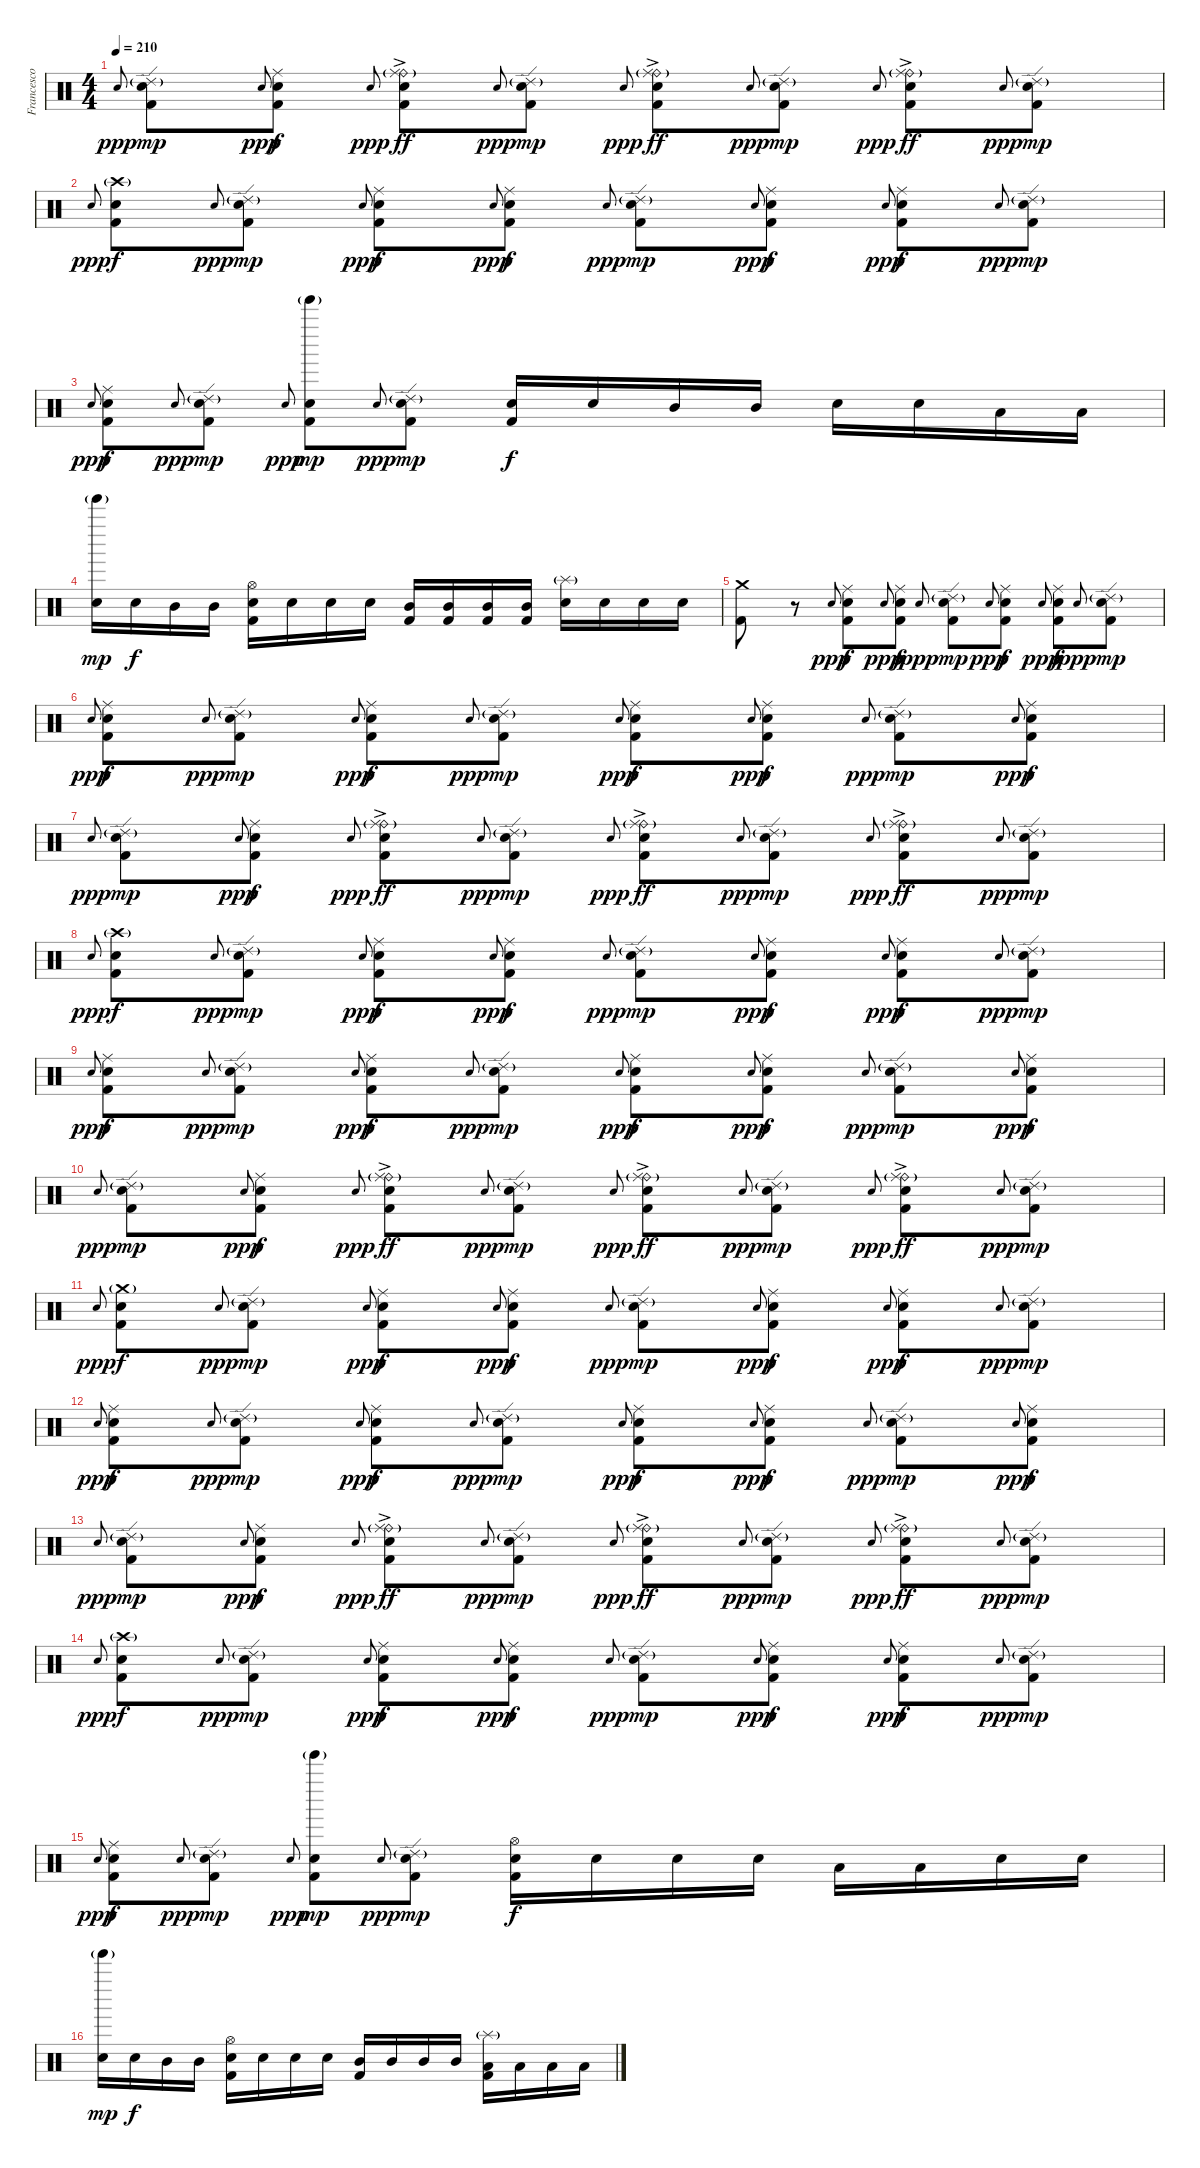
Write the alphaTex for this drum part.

\track ("Francesco Ferrini" "Francesco ") {instrument percussion}
\staff {score}
\articulation defaults
\ts (4 4)
\tempo 210
\clef neutral
\ks c "Electric Snare (hit)"{h}.8{gr onbeat dy ppp}
("Ride (edge) 2"{g} "Electric Snare (hit)" "Kick (hit) 2").8{dy mp} "Electric Snare (hit)"{h}.8{gr onbeat dy ppp} ("Ride (middle)" "Electric Snare (hit)" "Kick (hit) 2").8{dy f} "Electric Snare (hit)"{h}.8{gr onbeat dy ppp} ("Ride (bell)"{g} "Ride (middle)"{ac} "Electric Snare (hit)" "Kick (hit) 2").8{dy ff} "Electric Snare (hit)"{h}.8{gr onbeat dy ppp} ("Ride (edge) 2"{g} "Electric Snare (hit)" "Kick (hit) 2").8{dy mp} "Electric Snare (hit)"{h}.8{gr onbeat dy ppp} ("Ride (bell)"{g} "Ride (middle)"{ac} "Electric Snare (hit)" "Kick (hit) 2").8{dy ff} "Electric Snare (hit)"{h}.8{gr onbeat dy ppp} ("Ride (edge) 2"{g} "Electric Snare (hit)" "Kick (hit) 2").8{dy mp} "Electric Snare (hit)"{h}.8{gr onbeat dy ppp} ("Ride (bell)"{g} "Ride (middle)"{ac} "Electric Snare (hit)" "Kick (hit) 2").8{dy ff} "Electric Snare (hit)"{h}.8{gr onbeat dy ppp} ("Ride (edge) 2"{g} "Electric Snare (hit)" "Kick (hit) 2").8{dy mp} |
"Electric Snare (hit)"{h}.8{gr onbeat dy ppp} ("Crash high (hit)"{g} "Electric Snare (hit)" "Kick (hit) 2").8{dy f} "Electric Snare (hit)"{h}.8{gr onbeat dy ppp} ("Ride (edge) 2"{g} "Electric Snare (hit)" "Kick (hit) 2").8{dy mp} "Electric Snare (hit)"{h}.8{gr onbeat dy ppp} ("Ride (middle)" "Electric Snare (hit)" "Kick (hit) 2").8{dy f} "Electric Snare (hit)"{h}.8{gr onbeat dy ppp} ("Ride (middle)" "Electric Snare (hit)" "Kick (hit) 2").8{dy f} "Electric Snare (hit)"{h}.8{gr onbeat dy ppp} ("Ride (edge) 2"{g} "Electric Snare (hit)" "Kick (hit) 2").8{dy mp} "Electric Snare (hit)"{h}.8{gr onbeat dy ppp} ("Ride (middle)" "Electric Snare (hit)" "Kick (hit) 2").8{dy f} "Electric Snare (hit)"{h}.8{gr onbeat dy ppp} ("Ride (middle)" "Electric Snare (hit)" "Kick (hit) 2").8{dy f} "Electric Snare (hit)"{h}.8{gr onbeat dy ppp} ("Ride (edge) 2"{g} "Electric Snare (hit)" "Kick (hit) 2").8{dy mp} |
"Electric Snare (hit)"{h}.8{gr onbeat dy ppp} ("Ride (middle)" "Electric Snare (hit)" "Kick (hit) 2").8{dy f} "Electric Snare (hit)"{h}.8{gr onbeat dy ppp} ("Ride (edge) 2"{g} "Electric Snare (hit)" "Kick (hit) 2").8{dy mp} "Electric Snare (hit)"{h}.8{gr onbeat dy ppp} ("Tinkle Bell (hit)"{g} "Electric Snare (hit)" "Kick (hit) 2").8{dy mp} "Electric Snare (hit)"{h}.8{gr onbeat dy ppp} ("Ride (edge) 2"{g} "Electric Snare (hit)" "Kick (hit) 2").8{dy mp} ("Electric Snare (hit)" "Kick (hit) 2").16{dy f} "Electric Snare (hit)".16 "Mid Tom (hit)".16 "Mid Tom (hit)".16 "Electric Snare (hit)".16 "Electric Snare (hit)".16 "Low Tom (hit)".16 "Low Tom (hit)".16 |
("Tinkle Bell (hit)"{g} "Electric Snare (hit)").16{dy mp} "Electric Snare (hit)".16{dy f} "Mid Tom (hit)".16 "Mid Tom (hit)".16 ("Hi-Hat (open)" "Electric Snare (hit)" "Kick (hit) 2").16 "Electric Snare (hit)".16 "Electric Snare (hit)".16 "Electric Snare (hit)".16 ("Mid Tom (hit)" "Kick (hit) 2").16 ("Mid Tom (hit)" "Kick (hit) 2").16 ("Mid Tom (hit)" "Kick (hit) 2").16 ("Mid Tom (hit)" "Kick (hit) 2").16 ("Splash (hit)"{g} "Electric Snare (hit)").16 "Electric Snare (hit)".16 "Electric Snare (hit)".16 "Electric Snare (hit)".16 |
("Crash medium (hit)" "Kick (hit) 2").8 r.8 "Electric Snare (hit)"{h}.8{gr onbeat dy ppp} ("Ride (middle)" "Electric Snare (hit)" "Kick (hit) 2").8{dy f} "Electric Snare (hit)"{h}.8{gr onbeat dy ppp} ("Ride (middle)" "Electric Snare (hit)" "Kick (hit) 2").8{dy f} "Electric Snare (hit)"{h}.8{gr onbeat dy ppp} ("Ride (edge) 2"{g} "Electric Snare (hit)" "Kick (hit) 2").8{dy mp} "Electric Snare (hit)"{h}.8{gr onbeat dy ppp} ("Ride (middle)" "Electric Snare (hit)" "Kick (hit) 2").8{dy f} "Electric Snare (hit)"{h}.8{gr onbeat dy ppp} ("Ride (middle)" "Electric Snare (hit)" "Kick (hit) 2").8{dy f} "Electric Snare (hit)"{h}.8{gr onbeat dy ppp} ("Ride (edge) 2"{g} "Electric Snare (hit)" "Kick (hit) 2").8{dy mp} |
"Electric Snare (hit)"{h}.8{gr onbeat dy ppp} ("Ride (middle)" "Electric Snare (hit)" "Kick (hit) 2").8{dy f} "Electric Snare (hit)"{h}.8{gr onbeat dy ppp} ("Ride (edge) 2"{g} "Electric Snare (hit)" "Kick (hit) 2").8{dy mp} "Electric Snare (hit)"{h}.8{gr onbeat dy ppp} ("Ride (middle)" "Electric Snare (hit)" "Kick (hit) 2").8{dy f} "Electric Snare (hit)"{h}.8{gr onbeat dy ppp} ("Ride (edge) 2"{g} "Electric Snare (hit)" "Kick (hit) 2").8{dy mp} "Electric Snare (hit)"{h}.8{gr onbeat dy ppp} ("Ride (middle)" "Electric Snare (hit)" "Kick (hit) 2").8{dy f} "Electric Snare (hit)"{h}.8{gr onbeat dy ppp} ("Ride (middle)" "Electric Snare (hit)" "Kick (hit) 2").8{dy f} "Electric Snare (hit)"{h}.8{gr onbeat dy ppp} ("Ride (edge) 2"{g} "Electric Snare (hit)" "Kick (hit) 2").8{dy mp} "Electric Snare (hit)"{h}.8{gr onbeat dy ppp} ("Ride (middle)" "Electric Snare (hit)" "Kick (hit) 2").8{dy f} |
"Electric Snare (hit)"{h}.8{gr onbeat dy ppp} ("Ride (edge) 2"{g} "Electric Snare (hit)" "Kick (hit) 2").8{dy mp} "Electric Snare (hit)"{h}.8{gr onbeat dy ppp} ("Ride (middle)" "Electric Snare (hit)" "Kick (hit) 2").8{dy f} "Electric Snare (hit)"{h}.8{gr onbeat dy ppp} ("Ride (bell)"{g} "Ride (middle)"{ac} "Electric Snare (hit)" "Kick (hit) 2").8{dy ff} "Electric Snare (hit)"{h}.8{gr onbeat dy ppp} ("Ride (edge) 2"{g} "Electric Snare (hit)" "Kick (hit) 2").8{dy mp} "Electric Snare (hit)"{h}.8{gr onbeat dy ppp} ("Ride (bell)"{g} "Ride (middle)"{ac} "Electric Snare (hit)" "Kick (hit) 2").8{dy ff} "Electric Snare (hit)"{h}.8{gr onbeat dy ppp} ("Ride (edge) 2"{g} "Electric Snare (hit)" "Kick (hit) 2").8{dy mp} "Electric Snare (hit)"{h}.8{gr onbeat dy ppp} ("Ride (bell)"{g} "Ride (middle)"{ac} "Electric Snare (hit)" "Kick (hit) 2").8{dy ff} "Electric Snare (hit)"{h}.8{gr onbeat dy ppp} ("Ride (edge) 2"{g} "Electric Snare (hit)" "Kick (hit) 2").8{dy mp} |
"Electric Snare (hit)"{h}.8{gr onbeat dy ppp} ("Crash high (hit)"{g} "Electric Snare (hit)" "Kick (hit) 2").8{dy f} "Electric Snare (hit)"{h}.8{gr onbeat dy ppp} ("Ride (edge) 2"{g} "Electric Snare (hit)" "Kick (hit) 2").8{dy mp} "Electric Snare (hit)"{h}.8{gr onbeat dy ppp} ("Ride (middle)" "Electric Snare (hit)" "Kick (hit) 2").8{dy f} "Electric Snare (hit)"{h}.8{gr onbeat dy ppp} ("Ride (middle)" "Electric Snare (hit)" "Kick (hit) 2").8{dy f} "Electric Snare (hit)"{h}.8{gr onbeat dy ppp} ("Ride (edge) 2"{g} "Electric Snare (hit)" "Kick (hit) 2").8{dy mp} "Electric Snare (hit)"{h}.8{gr onbeat dy ppp} ("Ride (middle)" "Electric Snare (hit)" "Kick (hit) 2").8{dy f} "Electric Snare (hit)"{h}.8{gr onbeat dy ppp} ("Ride (middle)" "Electric Snare (hit)" "Kick (hit) 2").8{dy f} "Electric Snare (hit)"{h}.8{gr onbeat dy ppp} ("Ride (edge) 2"{g} "Electric Snare (hit)" "Kick (hit) 2").8{dy mp} |
"Electric Snare (hit)"{h}.8{gr onbeat dy ppp} ("Ride (middle)" "Electric Snare (hit)" "Kick (hit) 2").8{dy f} "Electric Snare (hit)"{h}.8{gr onbeat dy ppp} ("Ride (edge) 2"{g} "Electric Snare (hit)" "Kick (hit) 2").8{dy mp} "Electric Snare (hit)"{h}.8{gr onbeat dy ppp} ("Ride (middle)" "Electric Snare (hit)" "Kick (hit) 2").8{dy f} "Electric Snare (hit)"{h}.8{gr onbeat dy ppp} ("Ride (edge) 2"{g} "Electric Snare (hit)" "Kick (hit) 2").8{dy mp} "Electric Snare (hit)"{h}.8{gr onbeat dy ppp} ("Ride (middle)" "Electric Snare (hit)" "Kick (hit) 2").8{dy f} "Electric Snare (hit)"{h}.8{gr onbeat dy ppp} ("Ride (middle)" "Electric Snare (hit)" "Kick (hit) 2").8{dy f} "Electric Snare (hit)"{h}.8{gr onbeat dy ppp} ("Ride (edge) 2"{g} "Electric Snare (hit)" "Kick (hit) 2").8{dy mp} "Electric Snare (hit)"{h}.8{gr onbeat dy ppp} ("Ride (middle)" "Electric Snare (hit)" "Kick (hit) 2").8{dy f} |
"Electric Snare (hit)"{h}.8{gr onbeat dy ppp} ("Ride (edge) 2"{g} "Electric Snare (hit)" "Kick (hit) 2").8{dy mp} "Electric Snare (hit)"{h}.8{gr onbeat dy ppp} ("Ride (middle)" "Electric Snare (hit)" "Kick (hit) 2").8{dy f} "Electric Snare (hit)"{h}.8{gr onbeat dy ppp} ("Ride (bell)"{g} "Ride (middle)"{ac} "Electric Snare (hit)" "Kick (hit) 2").8{dy ff} "Electric Snare (hit)"{h}.8{gr onbeat dy ppp} ("Ride (edge) 2"{g} "Electric Snare (hit)" "Kick (hit) 2").8{dy mp} "Electric Snare (hit)"{h}.8{gr onbeat dy ppp} ("Ride (bell)"{g} "Ride (middle)"{ac} "Electric Snare (hit)" "Kick (hit) 2").8{dy ff} "Electric Snare (hit)"{h}.8{gr onbeat dy ppp} ("Ride (edge) 2"{g} "Electric Snare (hit)" "Kick (hit) 2").8{dy mp} "Electric Snare (hit)"{h}.8{gr onbeat dy ppp} ("Ride (bell)"{g} "Ride (middle)"{ac} "Electric Snare (hit)" "Kick (hit) 2").8{dy ff} "Electric Snare (hit)"{h}.8{gr onbeat dy ppp} ("Ride (edge) 2"{g} "Electric Snare (hit)" "Kick (hit) 2").8{dy mp} |
"Electric Snare (hit)"{h}.8{gr onbeat dy ppp} ("Crash medium (hit)"{g} "Electric Snare (hit)" "Kick (hit) 2").8{dy f} "Electric Snare (hit)"{h}.8{gr onbeat dy ppp} ("Ride (edge) 2"{g} "Electric Snare (hit)" "Kick (hit) 2").8{dy mp} "Electric Snare (hit)"{h}.8{gr onbeat dy ppp} ("Ride (middle)" "Electric Snare (hit)" "Kick (hit) 2").8{dy f} "Electric Snare (hit)"{h}.8{gr onbeat dy ppp} ("Ride (middle)" "Electric Snare (hit)" "Kick (hit) 2").8{dy f} "Electric Snare (hit)"{h}.8{gr onbeat dy ppp} ("Ride (edge) 2"{g} "Electric Snare (hit)" "Kick (hit) 2").8{dy mp} "Electric Snare (hit)"{h}.8{gr onbeat dy ppp} ("Ride (middle)" "Electric Snare (hit)" "Kick (hit) 2").8{dy f} "Electric Snare (hit)"{h}.8{gr onbeat dy ppp} ("Ride (middle)" "Electric Snare (hit)" "Kick (hit) 2").8{dy f} "Electric Snare (hit)"{h}.8{gr onbeat dy ppp} ("Ride (edge) 2"{g} "Electric Snare (hit)" "Kick (hit) 2").8{dy mp} |
"Electric Snare (hit)"{h}.8{gr onbeat dy ppp} ("Ride (middle)" "Electric Snare (hit)" "Kick (hit) 2").8{dy f} "Electric Snare (hit)"{h}.8{gr onbeat dy ppp} ("Ride (edge) 2"{g} "Electric Snare (hit)" "Kick (hit) 2").8{dy mp} "Electric Snare (hit)"{h}.8{gr onbeat dy ppp} ("Ride (middle)" "Electric Snare (hit)" "Kick (hit) 2").8{dy f} "Electric Snare (hit)"{h}.8{gr onbeat dy ppp} ("Ride (edge) 2"{g} "Electric Snare (hit)" "Kick (hit) 2").8{dy mp} "Electric Snare (hit)"{h}.8{gr onbeat dy ppp} ("Ride (middle)" "Electric Snare (hit)" "Kick (hit) 2").8{dy f} "Electric Snare (hit)"{h}.8{gr onbeat dy ppp} ("Ride (middle)" "Electric Snare (hit)" "Kick (hit) 2").8{dy f} "Electric Snare (hit)"{h}.8{gr onbeat dy ppp} ("Ride (edge) 2"{g} "Electric Snare (hit)" "Kick (hit) 2").8{dy mp} "Electric Snare (hit)"{h}.8{gr onbeat dy ppp} ("Ride (middle)" "Electric Snare (hit)" "Kick (hit) 2").8{dy f} |
"Electric Snare (hit)"{h}.8{gr onbeat dy ppp} ("Ride (edge) 2"{g} "Electric Snare (hit)" "Kick (hit) 2").8{dy mp} "Electric Snare (hit)"{h}.8{gr onbeat dy ppp} ("Ride (middle)" "Electric Snare (hit)" "Kick (hit) 2").8{dy f} "Electric Snare (hit)"{h}.8{gr onbeat dy ppp} ("Ride (bell)"{g} "Ride (middle)"{ac} "Electric Snare (hit)" "Kick (hit) 2").8{dy ff} "Electric Snare (hit)"{h}.8{gr onbeat dy ppp} ("Ride (edge) 2"{g} "Electric Snare (hit)" "Kick (hit) 2").8{dy mp} "Electric Snare (hit)"{h}.8{gr onbeat dy ppp} ("Ride (bell)"{g} "Ride (middle)"{ac} "Electric Snare (hit)" "Kick (hit) 2").8{dy ff} "Electric Snare (hit)"{h}.8{gr onbeat dy ppp} ("Ride (edge) 2"{g} "Electric Snare (hit)" "Kick (hit) 2").8{dy mp} "Electric Snare (hit)"{h}.8{gr onbeat dy ppp} ("Ride (bell)"{g} "Ride (middle)"{ac} "Electric Snare (hit)" "Kick (hit) 2").8{dy ff} "Electric Snare (hit)"{h}.8{gr onbeat dy ppp} ("Ride (edge) 2"{g} "Electric Snare (hit)" "Kick (hit) 2").8{dy mp} |
"Electric Snare (hit)"{h}.8{gr onbeat dy ppp} ("Crash high (hit)"{g} "Electric Snare (hit)" "Kick (hit) 2").8{dy f} "Electric Snare (hit)"{h}.8{gr onbeat dy ppp} ("Ride (edge) 2"{g} "Electric Snare (hit)" "Kick (hit) 2").8{dy mp} "Electric Snare (hit)"{h}.8{gr onbeat dy ppp} ("Ride (middle)" "Electric Snare (hit)" "Kick (hit) 2").8{dy f} "Electric Snare (hit)"{h}.8{gr onbeat dy ppp} ("Ride (middle)" "Electric Snare (hit)" "Kick (hit) 2").8{dy f} "Electric Snare (hit)"{h}.8{gr onbeat dy ppp} ("Ride (edge) 2"{g} "Electric Snare (hit)" "Kick (hit) 2").8{dy mp} "Electric Snare (hit)"{h}.8{gr onbeat dy ppp} ("Ride (middle)" "Electric Snare (hit)" "Kick (hit) 2").8{dy f} "Electric Snare (hit)"{h}.8{gr onbeat dy ppp} ("Ride (middle)" "Electric Snare (hit)" "Kick (hit) 2").8{dy f} "Electric Snare (hit)"{h}.8{gr onbeat dy ppp} ("Ride (edge) 2"{g} "Electric Snare (hit)" "Kick (hit) 2").8{dy mp} |
"Electric Snare (hit)"{h}.8{gr onbeat dy ppp} ("Ride (middle)" "Electric Snare (hit)" "Kick (hit) 2").8{dy f} "Electric Snare (hit)"{h}.8{gr onbeat dy ppp} ("Ride (edge) 2"{g} "Electric Snare (hit)" "Kick (hit) 2").8{dy mp} "Electric Snare (hit)"{h}.8{gr onbeat dy ppp} ("Tinkle Bell (hit)"{g} "Electric Snare (hit)" "Kick (hit) 2").8{dy mp} "Electric Snare (hit)"{h}.8{gr onbeat dy ppp} ("Ride (edge) 2"{g} "Electric Snare (hit)" "Kick (hit) 2").8{dy mp} ("Hi-Hat (open)" "Electric Snare (hit)" "Kick (hit) 2").16{dy f} "Electric Snare (hit)".16 "Electric Snare (hit)".16 "Electric Snare (hit)".16 "Low Tom (hit)".16 "Low Tom (hit)".16 "Electric Snare (hit)".16 "Electric Snare (hit)".16 |
("Tinkle Bell (hit)"{g} "Electric Snare (hit)").16{dy mp} "Electric Snare (hit)".16{dy f} "Mid Tom (hit)".16 "Mid Tom (hit)".16 ("Hi-Hat (open)" "Electric Snare (hit)" "Kick (hit) 2").16 "Electric Snare (hit)".16 "Electric Snare (hit)".16 "Electric Snare (hit)".16 ("Mid Tom (hit)" "Kick (hit) 2").16 "Mid Tom (hit)".16 "Mid Tom (hit)".16 "Mid Tom (hit)".16 ("Splash (hit)"{g} "Low Tom (hit)" "Kick (hit) 2").16 "Low Tom (hit)".16 "Low Tom (hit)".16 "Low Tom (hit)".16
